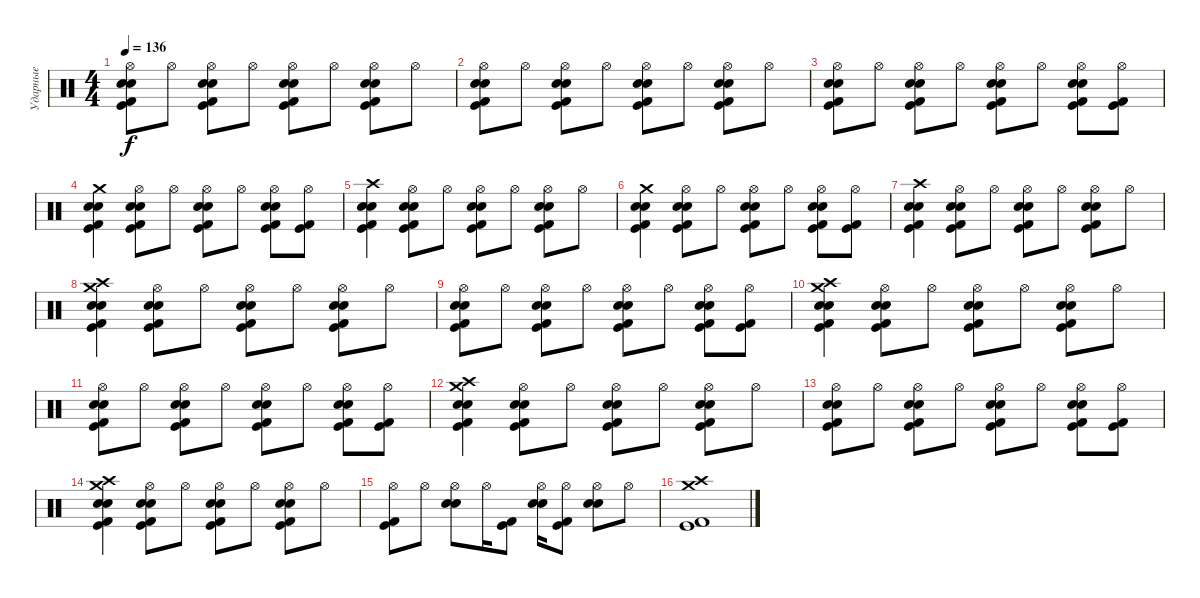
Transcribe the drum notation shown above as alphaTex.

\track ("Ударные" "Ударные") {instrument percussion}
\staff {score}
\articulation defaults
\ts (4 4)
\tempo 136
\clef neutral
\ks c
("Hi-Hat (open)" "Snare (hit) 2" "Kick (hit) 2" "Kick (hit)" "Electric Snare (hit)").8{dy f} "Hi-Hat (open)".8 ("Hi-Hat (open)" "Snare (hit) 2" "Kick (hit) 2" "Kick (hit)" "Electric Snare (hit)").8 "Hi-Hat (open)".8 ("Hi-Hat (open)" "Snare (hit) 2" "Kick (hit) 2" "Kick (hit)" "Electric Snare (hit)").8 "Hi-Hat (open)".8 ("Hi-Hat (open)" "Snare (hit) 2" "Kick (hit) 2" "Kick (hit)" "Electric Snare (hit)").8 "Hi-Hat (open)".8 |
("Hi-Hat (open)" "Snare (hit) 2" "Kick (hit) 2" "Kick (hit)" "Electric Snare (hit)").8 "Hi-Hat (open)".8 ("Hi-Hat (open)" "Snare (hit) 2" "Kick (hit) 2" "Kick (hit)" "Electric Snare (hit)").8 "Hi-Hat (open)".8 ("Hi-Hat (open)" "Snare (hit) 2" "Kick (hit) 2" "Kick (hit)" "Electric Snare (hit)").8 "Hi-Hat (open)".8 ("Hi-Hat (open)" "Snare (hit) 2" "Kick (hit) 2" "Kick (hit)" "Electric Snare (hit)").8 "Hi-Hat (open)".8 |
("Hi-Hat (open)" "Snare (hit) 2" "Kick (hit) 2" "Kick (hit)" "Electric Snare (hit)").8 "Hi-Hat (open)".8 ("Hi-Hat (open)" "Snare (hit) 2" "Kick (hit) 2" "Kick (hit)" "Electric Snare (hit)").8 "Hi-Hat (open)".8 ("Hi-Hat (open)" "Snare (hit) 2" "Kick (hit) 2" "Kick (hit)" "Electric Snare (hit)").8 "Hi-Hat (open)".8 ("Hi-Hat (open)" "Snare (hit) 2" "Kick (hit) 2" "Kick (hit)" "Electric Snare (hit)").8 ("Hi-Hat (open)" "Kick (hit)" "Kick (hit) 2").8 |
("Crash medium (hit)" "Snare (hit) 2" "Kick (hit) 2" "Kick (hit)" "Electric Snare (hit)").4 ("Hi-Hat (open)" "Snare (hit) 2" "Kick (hit) 2" "Kick (hit)" "Electric Snare (hit)").8 "Hi-Hat (open)".8 ("Hi-Hat (open)" "Snare (hit) 2" "Kick (hit) 2" "Kick (hit)" "Electric Snare (hit)").8 "Hi-Hat (open)".8 ("Hi-Hat (open)" "Snare (hit) 2" "Kick (hit) 2" "Kick (hit)" "Electric Snare (hit)").8 ("Hi-Hat (open)" "Kick (hit)" "Kick (hit) 2").8 |
("Crash high (hit)" "Snare (hit) 2" "Kick (hit) 2" "Kick (hit)" "Electric Snare (hit)").4 ("Hi-Hat (open)" "Snare (hit) 2" "Kick (hit) 2" "Kick (hit)" "Electric Snare (hit)").8 "Hi-Hat (open)".8 ("Hi-Hat (open)" "Snare (hit) 2" "Kick (hit) 2" "Kick (hit)" "Electric Snare (hit)").8 "Hi-Hat (open)".8 ("Hi-Hat (open)" "Snare (hit) 2" "Kick (hit) 2" "Kick (hit)" "Electric Snare (hit)").8 "Hi-Hat (open)".8 |
("Crash medium (hit)" "Snare (hit) 2" "Kick (hit) 2" "Kick (hit)" "Electric Snare (hit)").4 ("Hi-Hat (open)" "Snare (hit) 2" "Kick (hit) 2" "Kick (hit)" "Electric Snare (hit)").8 "Hi-Hat (open)".8 ("Hi-Hat (open)" "Snare (hit) 2" "Kick (hit) 2" "Kick (hit)" "Electric Snare (hit)").8 "Hi-Hat (open)".8 ("Hi-Hat (open)" "Snare (hit) 2" "Kick (hit) 2" "Kick (hit)" "Electric Snare (hit)").8 ("Hi-Hat (open)" "Kick (hit)" "Kick (hit) 2").8 |
("Crash high (hit)" "Snare (hit) 2" "Kick (hit) 2" "Kick (hit)" "Electric Snare (hit)").4 ("Hi-Hat (open)" "Snare (hit) 2" "Kick (hit) 2" "Kick (hit)" "Electric Snare (hit)").8 "Hi-Hat (open)".8 ("Hi-Hat (open)" "Snare (hit) 2" "Kick (hit) 2" "Kick (hit)" "Electric Snare (hit)").8 "Hi-Hat (open)".8 ("Hi-Hat (open)" "Snare (hit) 2" "Kick (hit) 2" "Kick (hit)" "Electric Snare (hit)").8 "Hi-Hat (open)".8 |
("Crash high (hit)" "Snare (hit) 2" "Kick (hit) 2" "Kick (hit)" "Electric Snare (hit)" "Crash medium (hit)").4 ("Hi-Hat (open)" "Snare (hit) 2" "Kick (hit) 2" "Kick (hit)" "Electric Snare (hit)").8 "Hi-Hat (open)".8 ("Hi-Hat (open)" "Snare (hit) 2" "Kick (hit) 2" "Kick (hit)" "Electric Snare (hit)").8 "Hi-Hat (open)".8 ("Hi-Hat (open)" "Snare (hit) 2" "Kick (hit) 2" "Kick (hit)" "Electric Snare (hit)").8 "Hi-Hat (open)".8 |
("Hi-Hat (open)" "Snare (hit) 2" "Kick (hit) 2" "Kick (hit)" "Electric Snare (hit)").8 "Hi-Hat (open)".8 ("Hi-Hat (open)" "Snare (hit) 2" "Kick (hit) 2" "Kick (hit)" "Electric Snare (hit)").8 "Hi-Hat (open)".8 ("Hi-Hat (open)" "Snare (hit) 2" "Kick (hit) 2" "Kick (hit)" "Electric Snare (hit)").8 "Hi-Hat (open)".8 ("Hi-Hat (open)" "Snare (hit) 2" "Kick (hit) 2" "Kick (hit)" "Electric Snare (hit)").8 ("Hi-Hat (open)" "Kick (hit)" "Kick (hit) 2").8 |
("Crash high (hit)" "Snare (hit) 2" "Kick (hit) 2" "Kick (hit)" "Electric Snare (hit)" "Crash medium (hit)").4 ("Hi-Hat (open)" "Snare (hit) 2" "Kick (hit) 2" "Kick (hit)" "Electric Snare (hit)").8 "Hi-Hat (open)".8 ("Hi-Hat (open)" "Snare (hit) 2" "Kick (hit) 2" "Kick (hit)" "Electric Snare (hit)").8 "Hi-Hat (open)".8 ("Hi-Hat (open)" "Snare (hit) 2" "Kick (hit) 2" "Kick (hit)" "Electric Snare (hit)").8 "Hi-Hat (open)".8 |
("Hi-Hat (open)" "Snare (hit) 2" "Kick (hit) 2" "Kick (hit)" "Electric Snare (hit)").8 "Hi-Hat (open)".8 ("Hi-Hat (open)" "Snare (hit) 2" "Kick (hit) 2" "Kick (hit)" "Electric Snare (hit)").8 "Hi-Hat (open)".8 ("Hi-Hat (open)" "Snare (hit) 2" "Kick (hit) 2" "Kick (hit)" "Electric Snare (hit)").8 "Hi-Hat (open)".8 ("Hi-Hat (open)" "Snare (hit) 2" "Kick (hit) 2" "Kick (hit)" "Electric Snare (hit)").8 ("Hi-Hat (open)" "Kick (hit)" "Kick (hit) 2").8 |
("Crash high (hit)" "Snare (hit) 2" "Kick (hit) 2" "Kick (hit)" "Electric Snare (hit)" "Crash medium (hit)").4 ("Hi-Hat (open)" "Snare (hit) 2" "Kick (hit) 2" "Kick (hit)" "Electric Snare (hit)").8 "Hi-Hat (open)".8 ("Hi-Hat (open)" "Snare (hit) 2" "Kick (hit) 2" "Kick (hit)" "Electric Snare (hit)").8 "Hi-Hat (open)".8 ("Hi-Hat (open)" "Snare (hit) 2" "Kick (hit) 2" "Kick (hit)" "Electric Snare (hit)").8 "Hi-Hat (open)".8 |
("Hi-Hat (open)" "Snare (hit) 2" "Kick (hit) 2" "Kick (hit)" "Electric Snare (hit)").8 "Hi-Hat (open)".8 ("Hi-Hat (open)" "Snare (hit) 2" "Kick (hit) 2" "Kick (hit)" "Electric Snare (hit)").8 "Hi-Hat (open)".8 ("Hi-Hat (open)" "Snare (hit) 2" "Kick (hit) 2" "Kick (hit)" "Electric Snare (hit)").8 "Hi-Hat (open)".8 ("Hi-Hat (open)" "Snare (hit) 2" "Kick (hit) 2" "Kick (hit)" "Electric Snare (hit)").8 ("Hi-Hat (open)" "Kick (hit)" "Kick (hit) 2").8 |
("Crash high (hit)" "Snare (hit) 2" "Kick (hit) 2" "Kick (hit)" "Electric Snare (hit)" "Crash medium (hit)").4 ("Hi-Hat (open)" "Snare (hit) 2" "Kick (hit) 2" "Kick (hit)" "Electric Snare (hit)").8 "Hi-Hat (open)".8 ("Hi-Hat (open)" "Snare (hit) 2" "Kick (hit) 2" "Kick (hit)" "Electric Snare (hit)").8 "Hi-Hat (open)".8 ("Hi-Hat (open)" "Snare (hit) 2" "Kick (hit) 2" "Kick (hit)" "Electric Snare (hit)").8 "Hi-Hat (open)".8 |
("Hi-Hat (open)" "Kick (hit)" "Kick (hit) 2").8 "Hi-Hat (open)".8 ("Hi-Hat (open)" "Snare (hit) 2" "Electric Snare (hit)").8 "Hi-Hat (open)".16 ("Kick (hit)" "Kick (hit) 2").8 ("Hi-Hat (open)" "Snare (hit) 2" "Electric Snare (hit)").16 ("Hi-Hat (open)" "Kick (hit)" "Kick (hit) 2").8 ("Hi-Hat (open)" "Snare (hit) 2" "Electric Snare (hit)").8 "Hi-Hat (open)".8 |
("Crash high (hit)" "Kick (hit)" "Kick (hit) 2" "Crash medium (hit)").1
